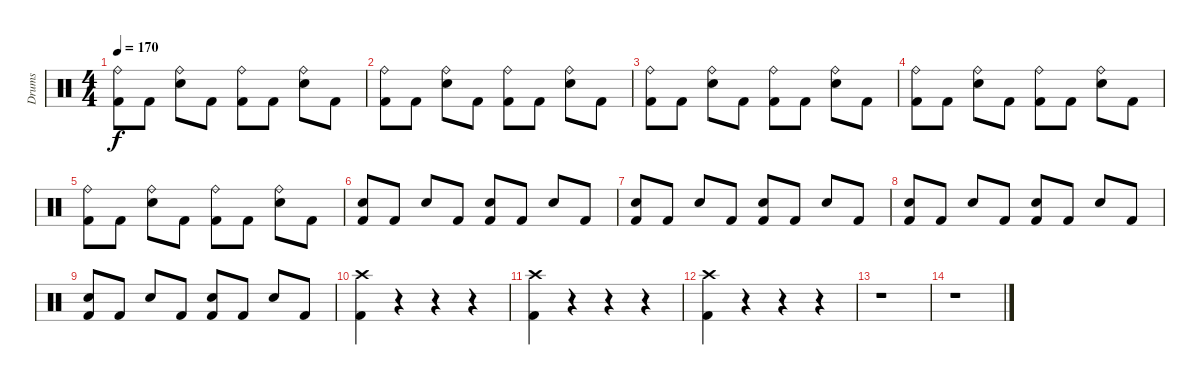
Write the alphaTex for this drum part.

\track ("Drums" "Drums") {instrument percussion}
\staff {score}
\articulation defaults
\ts (4 4)
\tempo 170
\clef neutral
\ks c
("Ride (bell)" "Kick (hit) 2").8{dy f} "Kick (hit) 2".8 ("Ride (bell)" "Electric Snare (hit)").8 "Kick (hit) 2".8 ("Ride (bell)" "Kick (hit) 2").8 "Kick (hit) 2".8 ("Ride (bell)" "Electric Snare (hit)").8 "Kick (hit) 2".8 |
("Ride (bell)" "Kick (hit) 2").8 "Kick (hit) 2".8 ("Ride (bell)" "Electric Snare (hit)").8 "Kick (hit) 2".8 ("Ride (bell)" "Kick (hit) 2").8 "Kick (hit) 2".8 ("Ride (bell)" "Electric Snare (hit)").8 "Kick (hit) 2".8 |
("Ride (bell)" "Kick (hit) 2").8 "Kick (hit) 2".8 ("Ride (bell)" "Electric Snare (hit)").8 "Kick (hit) 2".8 ("Ride (bell)" "Kick (hit) 2").8 "Kick (hit) 2".8 ("Ride (bell)" "Electric Snare (hit)").8 "Kick (hit) 2".8 |
("Ride (bell)" "Kick (hit) 2").8 "Kick (hit) 2".8 ("Ride (bell)" "Electric Snare (hit)").8 "Kick (hit) 2".8 ("Ride (bell)" "Kick (hit) 2").8 "Kick (hit) 2".8 ("Ride (bell)" "Electric Snare (hit)").8 "Kick (hit) 2".8 |
("Ride (bell)" "Kick (hit) 2").8 "Kick (hit) 2".8 ("Ride (bell)" "Electric Snare (hit)").8 "Kick (hit) 2".8 ("Ride (bell)" "Kick (hit) 2").8 "Kick (hit) 2".8 ("Ride (bell)" "Electric Snare (hit)").8 "Kick (hit) 2".8 |
("Hand Clap (hit)" "Kick (hit) 2").8 "Kick (hit) 2".8 "Electric Snare (hit)".8 "Kick (hit) 2".8 ("Hand Clap (hit)" "Kick (hit) 2").8 "Kick (hit) 2".8 "Electric Snare (hit)".8 "Kick (hit) 2".8 |
("Hand Clap (hit)" "Kick (hit) 2").8 "Kick (hit) 2".8 "Electric Snare (hit)".8 "Kick (hit) 2".8 ("Hand Clap (hit)" "Kick (hit) 2").8 "Kick (hit) 2".8 "Electric Snare (hit)".8 "Kick (hit) 2".8 |
("Hand Clap (hit)" "Kick (hit) 2").8 "Kick (hit) 2".8 "Electric Snare (hit)".8 "Kick (hit) 2".8 ("Hand Clap (hit)" "Kick (hit) 2").8 "Kick (hit) 2".8 "Electric Snare (hit)".8 "Kick (hit) 2".8 |
("Hand Clap (hit)" "Kick (hit) 2").8 "Kick (hit) 2".8 "Electric Snare (hit)".8 "Kick (hit) 2".8 ("Hand Clap (hit)" "Kick (hit) 2").8 "Kick (hit) 2".8 "Electric Snare (hit)".8 "Kick (hit) 2".8 |
("Crash high (hit)" "Kick (hit) 2").4 r.4 r.4 r.4 |
("Crash high (hit)" "Kick (hit) 2").4 r.4 r.4 r.4 |
("Crash high (hit)" "Kick (hit) 2").4 r.4 r.4 r.4 |
r.1 |
r.1
